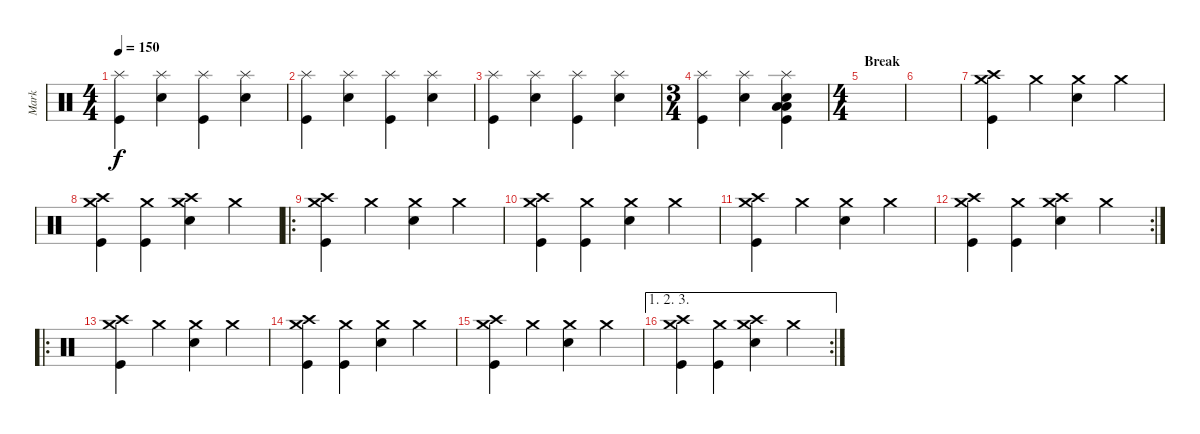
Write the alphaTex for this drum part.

\track ("Mark" "Mark") {instrument percussion}
\staff {score}
\articulation defaults
\ts (4 4)
\tempo 150
\clef neutral
\ks c
("Splash (hit)" "Kick (hit)").4{dy f} ("Splash (hit)" "Electric Snare (hit)").4 ("Splash (hit)" "Kick (hit)").4 ("Splash (hit)" "Electric Snare (hit)").4 |
("Splash (hit)" "Kick (hit)").4 ("Splash (hit)" "Electric Snare (hit)").4 ("Splash (hit)" "Kick (hit)").4 ("Splash (hit)" "Electric Snare (hit)").4 |
("Splash (hit)" "Kick (hit)").4 ("Splash (hit)" "Electric Snare (hit)").4 ("Splash (hit)" "Kick (hit)").4 ("Splash (hit)" "Electric Snare (hit)").4 |
\ts (3 4)
("Splash (hit)" "Kick (hit)").4 ("Splash (hit)" "Electric Snare (hit)").4 ("Low Floor Tom (hit)" "Low Floor Tom (hit)" "Splash (hit)" "Electric Snare (hit)" "Kick (hit)").4 |
\ts (4 4)
\section ("" "Break")
|
|
("Crash high (hit)" "Crash medium (hit)" "Kick (hit)").4 "Crash medium (hit)".4 ("Crash medium (hit)" "Electric Snare (hit)").4 "Crash medium (hit)".4 |
("Crash high (hit)" "Crash medium (hit)" "Kick (hit)").4 ("Crash medium (hit)" "Kick (hit)").4 ("Crash high (hit)" "Crash medium (hit)" "Electric Snare (hit)").4 "Crash medium (hit)".4 |
\ro
("Crash high (hit)" "Crash medium (hit)" "Kick (hit)").4 "Crash medium (hit)".4 ("Crash medium (hit)" "Electric Snare (hit)").4 "Crash medium (hit)".4 |
("Crash high (hit)" "Crash medium (hit)" "Kick (hit)").4 ("Crash medium (hit)" "Kick (hit)").4 ("Crash medium (hit)" "Electric Snare (hit)").4 "Crash medium (hit)".4 |
("Crash high (hit)" "Crash medium (hit)" "Kick (hit)").4 "Crash medium (hit)".4 ("Crash medium (hit)" "Electric Snare (hit)").4 "Crash medium (hit)".4 |
\rc 2
("Crash high (hit)" "Crash medium (hit)" "Kick (hit)").4 ("Crash medium (hit)" "Kick (hit)").4 ("Crash high (hit)" "Crash medium (hit)" "Electric Snare (hit)").4 "Crash medium (hit)".4 |
\ro
("Crash high (hit)" "Crash medium (hit)" "Kick (hit)").4 "Crash medium (hit)".4 ("Crash medium (hit)" "Electric Snare (hit)").4 "Crash medium (hit)".4 |
("Crash high (hit)" "Crash medium (hit)" "Kick (hit)").4 ("Crash medium (hit)" "Kick (hit)").4 ("Crash medium (hit)" "Electric Snare (hit)").4 "Crash medium (hit)".4 |
("Crash high (hit)" "Crash medium (hit)" "Kick (hit)").4 "Crash medium (hit)".4 ("Crash medium (hit)" "Electric Snare (hit)").4 "Crash medium (hit)".4 |
\ae (1 2 3)
\rc 2
("Crash high (hit)" "Crash medium (hit)" "Kick (hit)").4 ("Crash medium (hit)" "Kick (hit)").4 ("Crash high (hit)" "Crash medium (hit)" "Electric Snare (hit)").4 "Crash medium (hit)".4
